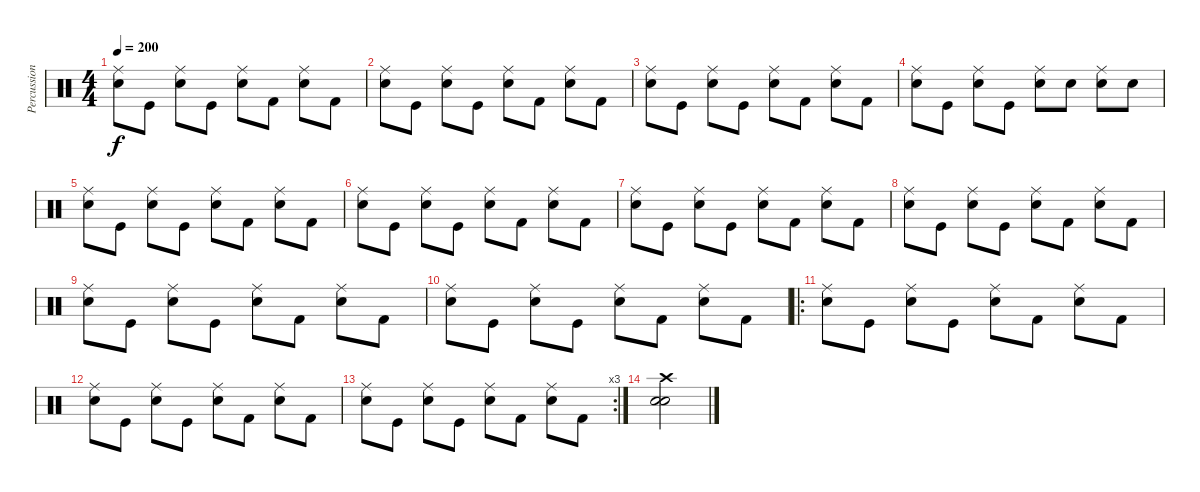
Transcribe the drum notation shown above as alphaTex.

\track ("Percussion" "Percussion") {instrument percussion}
\staff {score}
\articulation defaults
\ts (4 4)
\tempo 200
\clef neutral
\ks c
("Ride (middle)" "Electric Snare (hit)").8{dy f} "Kick (hit)".8 ("Ride (middle)" "Electric Snare (hit)").8 "Kick (hit)".8 ("Ride (middle)" "Electric Snare (hit)").8 "Kick (hit) 2".8 ("Ride (middle)" "Electric Snare (hit)").8 "Kick (hit) 2".8 |
("Ride (middle)" "Electric Snare (hit)").8 "Kick (hit)".8 ("Ride (middle)" "Electric Snare (hit)").8 "Kick (hit)".8 ("Ride (middle)" "Electric Snare (hit)").8 "Kick (hit) 2".8 ("Ride (middle)" "Electric Snare (hit)").8 "Kick (hit) 2".8 |
("Ride (middle)" "Electric Snare (hit)").8 "Kick (hit)".8 ("Ride (middle)" "Electric Snare (hit)").8 "Kick (hit)".8 ("Ride (middle)" "Electric Snare (hit)").8 "Kick (hit) 2".8 ("Ride (middle)" "Electric Snare (hit)").8 "Kick (hit) 2".8 |
("Ride (middle)" "Electric Snare (hit)").8 "Kick (hit)".8 ("Ride (middle)" "Electric Snare (hit)").8 "Kick (hit)".8 ("Ride (middle)" "Electric Snare (hit)").8 "Electric Snare (hit)".8 ("Ride (middle)" "Electric Snare (hit)").8 "Electric Snare (hit)".8 |
("Ride (middle)" "Electric Snare (hit)").8 "Kick (hit)".8 ("Ride (middle)" "Electric Snare (hit)").8 "Kick (hit)".8 ("Ride (middle)" "Electric Snare (hit)").8 "Kick (hit) 2".8 ("Ride (middle)" "Electric Snare (hit)").8 "Kick (hit) 2".8 |
("Ride (middle)" "Electric Snare (hit)").8 "Kick (hit)".8 ("Ride (middle)" "Electric Snare (hit)").8 "Kick (hit)".8 ("Ride (middle)" "Electric Snare (hit)").8 "Kick (hit) 2".8 ("Ride (middle)" "Electric Snare (hit)").8 "Kick (hit) 2".8 |
("Ride (middle)" "Electric Snare (hit)").8 "Kick (hit)".8 ("Ride (middle)" "Electric Snare (hit)").8 "Kick (hit)".8 ("Ride (middle)" "Electric Snare (hit)").8 "Kick (hit) 2".8 ("Ride (middle)" "Electric Snare (hit)").8 "Kick (hit) 2".8 |
("Ride (middle)" "Electric Snare (hit)").8 "Kick (hit)".8 ("Ride (middle)" "Electric Snare (hit)").8 "Kick (hit)".8 ("Ride (middle)" "Electric Snare (hit)").8 "Kick (hit) 2".8 ("Ride (middle)" "Electric Snare (hit)").8 "Kick (hit) 2".8 |
("Ride (middle)" "Electric Snare (hit)").8 "Kick (hit)".8 ("Ride (middle)" "Electric Snare (hit)").8 "Kick (hit)".8 ("Ride (middle)" "Electric Snare (hit)").8 "Kick (hit) 2".8 ("Ride (middle)" "Electric Snare (hit)").8 "Kick (hit) 2".8 |
("Ride (middle)" "Electric Snare (hit)").8 "Kick (hit)".8 ("Ride (middle)" "Electric Snare (hit)").8 "Kick (hit)".8 ("Ride (middle)" "Electric Snare (hit)").8 "Kick (hit) 2".8 ("Ride (middle)" "Electric Snare (hit)").8 "Kick (hit) 2".8 |
\ro
("Ride (middle)" "Electric Snare (hit)").8 "Kick (hit)".8 ("Ride (middle)" "Electric Snare (hit)").8 "Kick (hit)".8 ("Ride (middle)" "Electric Snare (hit)").8 "Kick (hit) 2".8 ("Ride (middle)" "Electric Snare (hit)").8 "Kick (hit) 2".8 |
("Ride (middle)" "Electric Snare (hit)").8 "Kick (hit)".8 ("Ride (middle)" "Electric Snare (hit)").8 "Kick (hit)".8 ("Ride (middle)" "Electric Snare (hit)").8 "Kick (hit) 2".8 ("Ride (middle)" "Electric Snare (hit)").8 "Kick (hit) 2".8 |
\rc 3
("Ride (middle)" "Electric Snare (hit)").8 "Kick (hit)".8 ("Ride (middle)" "Electric Snare (hit)").8 "Kick (hit)".8 ("Ride (middle)" "Electric Snare (hit)").8 "Kick (hit) 2".8 ("Ride (middle)" "Electric Snare (hit)").8 "Kick (hit) 2".8 |
("Electric Snare (hit)" "Electric Snare (hit)" "Crash high (hit)").2{bu 480}
